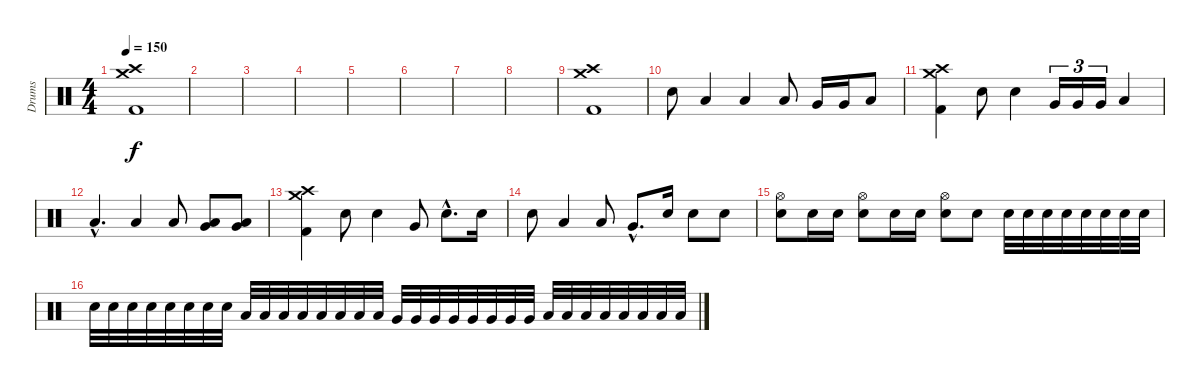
\track ("Drums" "Drums") {instrument percussion}
\staff {score}
\articulation defaults
\ts (4 4)
\tempo 150
\clef neutral
\ks c
("Crash high (hit)" "Kick (hit) 2" "Crash medium (hit)").1{dy f} |
|
|
|
|
|
|
|
("Crash high (hit)" "Kick (hit) 2" "Crash medium (hit)").1 |
"Snare (hit) 2".8 "Low Tom (hit)".4 "Low Tom (hit)".4 "Low Tom (hit)".8 "Very Low Tom (hit)".16 "Very Low Tom (hit)".16 "Low Floor Tom (hit)".8 |
("Kick (hit) 2" "Crash medium (hit)" "Crash high (hit)").4 "Snare (hit) 2".8 "Snare (hit) 2".4 "Very Low Tom (hit)".16{tu (3 2)} "Very Low Tom (hit)".16{tu (3 2)} "Very Low Tom (hit)".16{tu (3 2)} "Low Floor Tom (hit)".4 |
"Low Tom (hit)"{hac}.4{d} "Low Tom (hit)".4 "Low Tom (hit)".8 ("Very Low Tom (hit)" "Low Floor Tom (hit)").8 ("Very Low Tom (hit)" "Low Floor Tom (hit)").8 |
("Crash high (hit)" "Crash medium (hit)" "Kick (hit) 2").4 "Snare (hit) 2".8 "Snare (hit) 2".4 "Very Low Tom (hit)".8 "Snare (hit) 2"{hac}.8{d} "Snare (hit) 2".16 |
"Snare (hit) 2".8 "Low Tom (hit)".4 "Low Tom (hit)".8 "Very Low Tom (hit)"{hac}.8{d} "Snare (hit) 2".16 "Snare (hit) 2".8 "Snare (hit) 2".8 |
("Snare (hit) 2" "Hi-Hat (open)").8 "Snare (hit) 2".16 "Snare (hit) 2".16 ("Snare (hit) 2" "Hi-Hat (open)").8 "Snare (hit) 2".16 "Snare (hit) 2".16 ("Snare (hit) 2" "Hi-Hat (open)").8 "Snare (hit) 2".8 "Snare (hit) 2".32 "Snare (hit) 2".32 "Snare (hit) 2".32 "Snare (hit) 2".32 "Snare (hit) 2".32 "Snare (hit) 2".32 "Snare (hit) 2".32 "Snare (hit) 2".32 |
"Snare (hit) 2".32 "Snare (hit) 2".32 "Snare (hit) 2".32 "Snare (hit) 2".32 "Snare (hit) 2".32 "Snare (hit) 2".32 "Snare (hit) 2".32 "Snare (hit) 2".32 "Low Tom (hit)".32 "Low Tom (hit)".32 "Low Tom (hit)".32 "Low Tom (hit)".32 "Low Tom (hit)".32 "Low Tom (hit)".32 "Low Tom (hit)".32 "Low Tom (hit)".32 "Very Low Tom (hit)".32 "Very Low Tom (hit)".32 "Very Low Tom (hit)".32 "Very Low Tom (hit)".32 "Very Low Tom (hit)".32 "Very Low Tom (hit)".32 "Very Low Tom (hit)".32 "Very Low Tom (hit)".32 "Low Floor Tom (hit)".32 "Low Floor Tom (hit)".32 "Low Floor Tom (hit)".32 "Low Floor Tom (hit)".32 "Low Floor Tom (hit)".32 "Low Floor Tom (hit)".32 "Low Floor Tom (hit)".32 "Low Floor Tom (hit)".32
